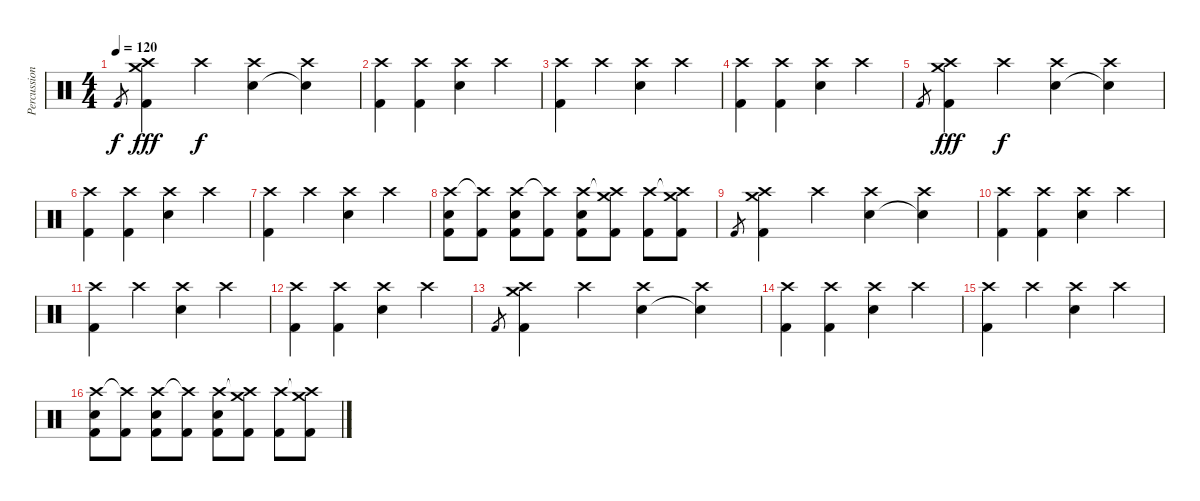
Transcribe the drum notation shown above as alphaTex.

\track ("Percussion" "Percussion") {instrument percussion}
\staff {score}
\articulation defaults
\ts (4 4)
\tempo 120
\clef neutral
\ks c "Kick (hit) 2".8{gr dy f}
("Crash high (hit)" "Crash medium (hit)" "Kick (hit) 2").4{dy fff} "Crash high (hit)".4{dy f} ("Crash high (hit)" "Electric Snare (hit)").4 ("Crash high (hit)" "Snare (hit)"{t}).4 |
("Crash high (hit)" "Kick (hit) 2").4 ("Crash high (hit)" "Kick (hit) 2").4 ("Crash high (hit)" "Electric Snare (hit)").4 "Crash high (hit)".4 |
("Crash high (hit)" "Kick (hit) 2").4 "Crash high (hit)".4 ("Crash high (hit)" "Electric Snare (hit)").4 "Crash high (hit)".4 |
("Crash high (hit)" "Kick (hit) 2").4 ("Crash high (hit)" "Kick (hit) 2").4 ("Crash high (hit)" "Electric Snare (hit)").4 "Crash high (hit)".4 |
"Kick (hit) 2".8{gr} ("Crash high (hit)" "Crash medium (hit)" "Kick (hit) 2").4{dy fff} "Crash high (hit)".4{dy f} ("Crash high (hit)" "Electric Snare (hit)").4 ("Crash high (hit)" "Snare (hit)"{t}).4 |
("Crash high (hit)" "Kick (hit) 2").4 ("Crash high (hit)" "Kick (hit) 2").4 ("Crash high (hit)" "Electric Snare (hit)").4 "Crash high (hit)".4 |
("Crash high (hit)" "Kick (hit) 2").4 "Crash high (hit)".4 ("Crash high (hit)" "Electric Snare (hit)").4 "Crash high (hit)".4 |
("Crash high (hit)" "Electric Snare (hit)" "Kick (hit) 2").8 ("Crash high (hit)"{t} "Kick (hit) 2").8 ("Crash high (hit)" "Electric Snare (hit)" "Kick (hit) 2").8 ("Crash high (hit)"{t} "Kick (hit) 2").8 ("Crash high (hit)" "Electric Snare (hit)" "Kick (hit) 2").8 ("Crash high (hit)"{t} "Crash medium (hit)" "Kick (hit) 2").8 ("Crash high (hit)" "Kick (hit) 2").8 ("Crash high (hit)"{t} "Crash medium (hit)" "Kick (hit) 2").8 |
"Kick (hit) 2".8{gr} ("Crash high (hit)" "Crash medium (hit)" "Kick (hit) 2").4 "Crash high (hit)".4 ("Crash high (hit)" "Electric Snare (hit)").4 ("Crash high (hit)" "Snare (hit)"{t}).4 |
("Crash high (hit)" "Kick (hit) 2").4 ("Crash high (hit)" "Kick (hit) 2").4 ("Crash high (hit)" "Electric Snare (hit)").4 "Crash high (hit)".4 |
("Crash high (hit)" "Kick (hit) 2").4 "Crash high (hit)".4 ("Crash high (hit)" "Electric Snare (hit)").4 "Crash high (hit)".4 |
("Crash high (hit)" "Kick (hit) 2").4 ("Crash high (hit)" "Kick (hit) 2").4 ("Crash high (hit)" "Electric Snare (hit)").4 "Crash high (hit)".4 |
"Kick (hit) 2".8{gr} ("Crash high (hit)" "Crash medium (hit)" "Kick (hit) 2").4 "Crash high (hit)".4 ("Crash high (hit)" "Electric Snare (hit)").4 ("Crash high (hit)" "Snare (hit)"{t}).4 |
("Crash high (hit)" "Kick (hit) 2").4 ("Crash high (hit)" "Kick (hit) 2").4 ("Crash high (hit)" "Electric Snare (hit)").4 "Crash high (hit)".4 |
("Crash high (hit)" "Kick (hit) 2").4 "Crash high (hit)".4 ("Crash high (hit)" "Electric Snare (hit)").4 "Crash high (hit)".4 |
("Crash high (hit)" "Electric Snare (hit)" "Kick (hit) 2").8 ("Crash high (hit)"{t} "Kick (hit) 2").8 ("Crash high (hit)" "Electric Snare (hit)" "Kick (hit) 2").8 ("Crash high (hit)"{t} "Kick (hit) 2").8 ("Crash high (hit)" "Electric Snare (hit)" "Kick (hit) 2").8 ("Crash high (hit)"{t} "Crash medium (hit)" "Kick (hit) 2").8 ("Crash high (hit)" "Kick (hit) 2").8 ("Crash high (hit)"{t} "Crash medium (hit)" "Kick (hit) 2").8
